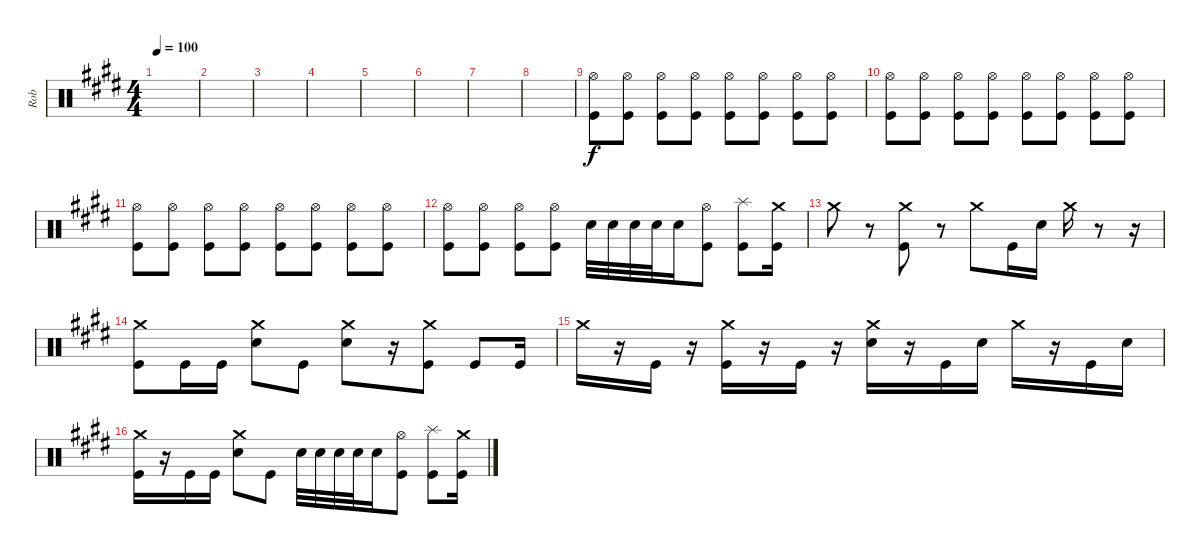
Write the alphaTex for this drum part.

\track ("Rob" "Rob") {instrument percussion}
\staff {score}
\articulation defaults
\ts (4 4)
\tempo 100
\clef neutral
\ks e
|
|
|
|
|
|
|
|
("Kick (hit)" "Hi-Hat (open)").8 ("Kick (hit)" "Hi-Hat (open)").8 ("Kick (hit)" "Hi-Hat (open)").8 ("Kick (hit)" "Hi-Hat (open)").8 ("Kick (hit)" "Hi-Hat (open)").8 ("Kick (hit)" "Hi-Hat (open)").8 ("Kick (hit)" "Hi-Hat (open)").8 ("Kick (hit)" "Hi-Hat (open)").8 |
("Kick (hit)" "Hi-Hat (open)").8 ("Kick (hit)" "Hi-Hat (open)").8 ("Kick (hit)" "Hi-Hat (open)").8 ("Kick (hit)" "Hi-Hat (open)").8 ("Kick (hit)" "Hi-Hat (open)").8 ("Kick (hit)" "Hi-Hat (open)").8 ("Kick (hit)" "Hi-Hat (open)").8 ("Kick (hit)" "Hi-Hat (open)").8 |
("Kick (hit)" "Hi-Hat (open)").8 ("Kick (hit)" "Hi-Hat (open)").8 ("Kick (hit)" "Hi-Hat (open)").8 ("Kick (hit)" "Hi-Hat (open)").8 ("Kick (hit)" "Hi-Hat (open)").8 ("Kick (hit)" "Hi-Hat (open)").8 ("Kick (hit)" "Hi-Hat (open)").8 ("Kick (hit)" "Hi-Hat (open)").8 |
("Kick (hit)" "Hi-Hat (open)").8 ("Kick (hit)" "Hi-Hat (open)").8 ("Kick (hit)" "Hi-Hat (open)").8 ("Kick (hit)" "Hi-Hat (open)").8 "Snare (hit) 2".32 "Snare (hit) 2".32 "Snare (hit) 2".32 "Snare (hit) 2".32 "Snare (hit) 2".16 ("Kick (hit)" "Hi-Hat (open)").8 ("Kick (hit)" "Splash (hit)").8 ("Kick (hit)" "Crash medium (hit)").16 |
"Crash medium (hit)".8 r.8 ("Kick (hit)" "Crash medium (hit)").8 r.8 "Crash medium (hit)".8 "Kick (hit)".16 "Snare (hit) 2".16 "Crash medium (hit)".16 r.8 r.16 |
("Crash medium (hit)" "Kick (hit)").8 "Kick (hit)".16 "Kick (hit)".16 ("Crash medium (hit)" "Snare (hit) 2").8 "Kick (hit)".8 ("Snare (hit) 2" "Crash medium (hit)").8 r.16 ("Crash medium (hit)" "Kick (hit)").8 "Kick (hit)".8 "Kick (hit)".16 |
"Crash medium (hit)".16 r.16 "Kick (hit)".16 r.16 ("Crash medium (hit)" "Kick (hit)").16 r.16 "Kick (hit)".16 r.16 ("Crash medium (hit)" "Snare (hit) 2").16 r.16 "Kick (hit)".16 "Snare (hit) 2".16 "Crash medium (hit)".16 r.16 "Kick (hit)".16 "Snare (hit) 2".16 |
("Crash medium (hit)" "Kick (hit)").16 r.16 "Kick (hit)".16 "Kick (hit)".16 ("Crash medium (hit)" "Snare (hit) 2").8 "Kick (hit)".8 "Snare (hit) 2".32 "Snare (hit) 2".32 "Snare (hit) 2".32 "Snare (hit) 2".32 "Snare (hit) 2".16 ("Kick (hit)" "Hi-Hat (open)").8 ("Kick (hit)" "Splash (hit)").8 ("Kick (hit)" "Crash medium (hit)").16
